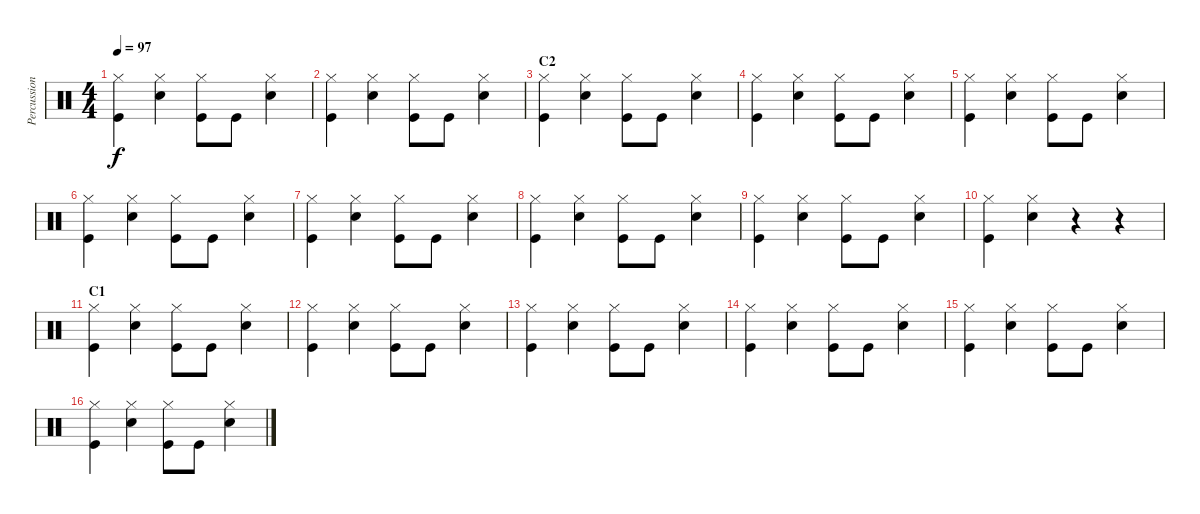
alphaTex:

\track ("Percussion" "Percussion") {instrument percussion}
\staff {score}
\articulation defaults
\ts (4 4)
\tempo 97
\clef neutral
\ks c
("Hi-Hat (closed)" "Kick (hit)").4{dy f} ("Hi-Hat (closed)" "Snare (hit) 2").4 ("Hi-Hat (closed)" "Kick (hit)").8 "Kick (hit)".8 ("Hi-Hat (closed)" "Snare (hit) 2").4 |
("Hi-Hat (closed)" "Kick (hit)").4 ("Hi-Hat (closed)" "Snare (hit) 2").4 ("Hi-Hat (closed)" "Kick (hit)").8 "Kick (hit)".8 ("Hi-Hat (closed)" "Snare (hit) 2").4 |
\section ("" "C2")
("Hi-Hat (closed)" "Kick (hit)").4 ("Hi-Hat (closed)" "Snare (hit) 2").4 ("Hi-Hat (closed)" "Kick (hit)").8 "Kick (hit)".8 ("Hi-Hat (closed)" "Snare (hit) 2").4 |
("Hi-Hat (closed)" "Kick (hit)").4 ("Hi-Hat (closed)" "Snare (hit) 2").4 ("Hi-Hat (closed)" "Kick (hit)").8 "Kick (hit)".8 ("Hi-Hat (closed)" "Snare (hit) 2").4 |
("Hi-Hat (closed)" "Kick (hit)").4 ("Hi-Hat (closed)" "Snare (hit) 2").4 ("Hi-Hat (closed)" "Kick (hit)").8 "Kick (hit)".8 ("Hi-Hat (closed)" "Snare (hit) 2").4 |
("Hi-Hat (closed)" "Kick (hit)").4 ("Hi-Hat (closed)" "Snare (hit) 2").4 ("Hi-Hat (closed)" "Kick (hit)").8 "Kick (hit)".8 ("Hi-Hat (closed)" "Snare (hit) 2").4 |
("Hi-Hat (closed)" "Kick (hit)").4 ("Hi-Hat (closed)" "Snare (hit) 2").4 ("Hi-Hat (closed)" "Kick (hit)").8 "Kick (hit)".8 ("Hi-Hat (closed)" "Snare (hit) 2").4 |
("Hi-Hat (closed)" "Kick (hit)").4 ("Hi-Hat (closed)" "Snare (hit) 2").4 ("Hi-Hat (closed)" "Kick (hit)").8 "Kick (hit)".8 ("Hi-Hat (closed)" "Snare (hit) 2").4 |
("Hi-Hat (closed)" "Kick (hit)").4 ("Hi-Hat (closed)" "Snare (hit) 2").4 ("Hi-Hat (closed)" "Kick (hit)").8 "Kick (hit)".8 ("Hi-Hat (closed)" "Snare (hit) 2").4 |
("Hi-Hat (closed)" "Kick (hit)").4 ("Hi-Hat (closed)" "Snare (hit) 2").4 r.4 r.4 |
\section ("" "C1")
("Hi-Hat (closed)" "Kick (hit)").4 ("Hi-Hat (closed)" "Snare (hit) 2").4 ("Hi-Hat (closed)" "Kick (hit)").8 "Kick (hit)".8 ("Hi-Hat (closed)" "Snare (hit) 2").4 |
("Hi-Hat (closed)" "Kick (hit)").4 ("Hi-Hat (closed)" "Snare (hit) 2").4 ("Hi-Hat (closed)" "Kick (hit)").8 "Kick (hit)".8 ("Hi-Hat (closed)" "Snare (hit) 2").4 |
("Hi-Hat (closed)" "Kick (hit)").4 ("Hi-Hat (closed)" "Snare (hit) 2").4 ("Hi-Hat (closed)" "Kick (hit)").8 "Kick (hit)".8 ("Hi-Hat (closed)" "Snare (hit) 2").4 |
("Hi-Hat (closed)" "Kick (hit)").4 ("Hi-Hat (closed)" "Snare (hit) 2").4 ("Hi-Hat (closed)" "Kick (hit)").8 "Kick (hit)".8 ("Hi-Hat (closed)" "Snare (hit) 2").4 |
("Hi-Hat (closed)" "Kick (hit)").4 ("Hi-Hat (closed)" "Snare (hit) 2").4 ("Hi-Hat (closed)" "Kick (hit)").8 "Kick (hit)".8 ("Hi-Hat (closed)" "Snare (hit) 2").4 |
("Hi-Hat (closed)" "Kick (hit)").4 ("Hi-Hat (closed)" "Snare (hit) 2").4 ("Hi-Hat (closed)" "Kick (hit)").8 "Kick (hit)".8 ("Hi-Hat (closed)" "Snare (hit) 2").4
